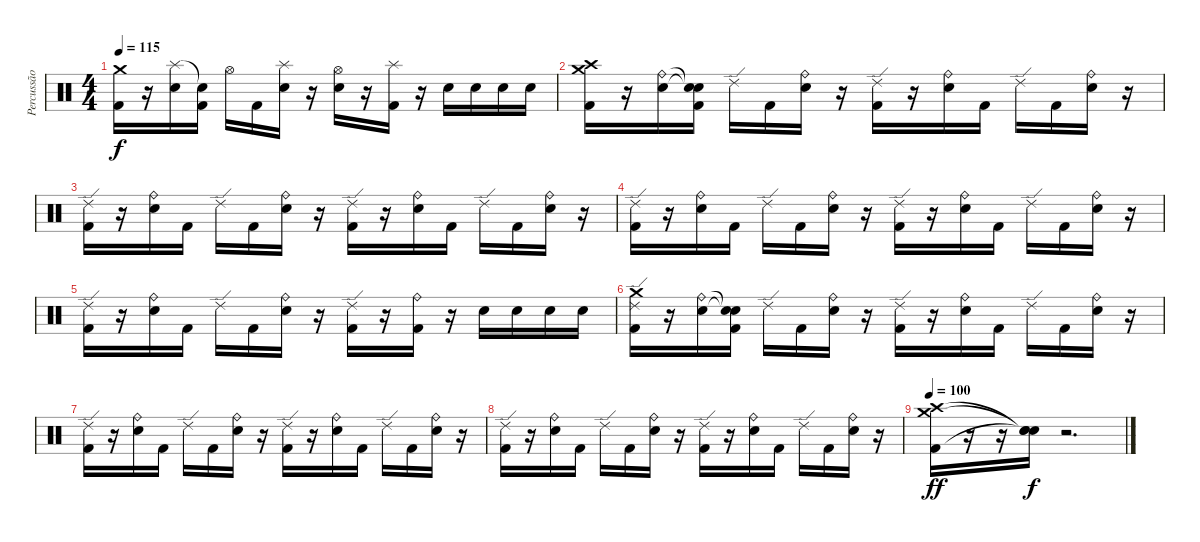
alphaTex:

\track ("Percussão" "Percussão") {instrument percussion}
\staff {score}
\articulation defaults
\ts (4 4)
\tempo 115
\clef neutral
\ks c
("Crash medium (hit)" "Kick (hit) 2").16{dy f} r.16 ("Splash (hit)" "Electric Snare (hit)").16 ("Snare (hit)"{t} "Kick (hit) 2").16 "Hi-Hat (open)".16 "Kick (hit) 2".16 ("Splash (hit)" "Electric Snare (hit)").16 r.16 ("Hi-Hat (open)" "Electric Snare (hit)").16 r.16 ("Splash (hit)" "Kick (hit) 2").16 r.16 "Electric Snare (hit)".16 "Electric Snare (hit)".16 "Electric Snare (hit)".16 "Electric Snare (hit)".16 |
("Crash high (hit)" "Crash medium (hit)" "Kick (hit) 2").16 r.16 ("Ride (bell)" "Electric Snare (hit)").16 ("Snare (hit)"{t} "Snare (hit)"{t} "Kick (hit) 2").16 "Ride (edge) 2".16 "Kick (hit) 2".16 ("Ride (bell)" "Electric Snare (hit)").16 r.16 ("Ride (edge) 2" "Kick (hit) 2").16 r.16 ("Ride (bell)" "Electric Snare (hit)").16 "Kick (hit) 2".16 "Ride (edge) 2".16 "Kick (hit) 2".16 ("Ride (bell)" "Electric Snare (hit)").16 r.16 |
("Ride (edge) 2" "Kick (hit) 2").16 r.16 ("Ride (bell)" "Electric Snare (hit)").16 "Kick (hit) 2".16 "Ride (edge) 2".16 "Kick (hit) 2".16 ("Ride (bell)" "Electric Snare (hit)").16 r.16 ("Ride (edge) 2" "Kick (hit) 2").16 r.16 ("Ride (bell)" "Electric Snare (hit)").16 "Kick (hit) 2".16 "Ride (edge) 2".16 "Kick (hit) 2".16 ("Ride (bell)" "Electric Snare (hit)").16 r.16 |
("Ride (edge) 2" "Kick (hit) 2").16 r.16 ("Ride (bell)" "Electric Snare (hit)").16 "Kick (hit) 2".16 "Ride (edge) 2".16 "Kick (hit) 2".16 ("Ride (bell)" "Electric Snare (hit)").16 r.16 ("Ride (edge) 2" "Kick (hit) 2").16 r.16 ("Ride (bell)" "Electric Snare (hit)").16 "Kick (hit) 2".16 "Ride (edge) 2".16 "Kick (hit) 2".16 ("Ride (bell)" "Electric Snare (hit)").16 r.16 |
("Ride (edge) 2" "Kick (hit) 2").16 r.16 ("Ride (bell)" "Electric Snare (hit)").16 "Kick (hit) 2".16 "Ride (edge) 2".16 "Kick (hit) 2".16 ("Ride (bell)" "Electric Snare (hit)").16 r.16 ("Ride (edge) 2" "Kick (hit) 2").16 r.16 ("Ride (bell)" "Kick (hit) 2").16 r.16 "Electric Snare (hit)".16 "Electric Snare (hit)".16 "Electric Snare (hit)".16 "Electric Snare (hit)".16 |
("Crash medium (hit)" "Ride (edge) 2" "Kick (hit) 2").16 r.16 ("Ride (bell)" "Electric Snare (hit)").16 ("Snare (hit)"{t} "Snare (hit)"{t} "Kick (hit) 2").16 "Ride (edge) 2".16 "Kick (hit) 2".16 ("Ride (bell)" "Electric Snare (hit)").16 r.16 ("Ride (edge) 2" "Kick (hit) 2").16 r.16 ("Ride (bell)" "Electric Snare (hit)").16 "Kick (hit) 2".16 "Ride (edge) 2".16 "Kick (hit) 2".16 ("Ride (bell)" "Electric Snare (hit)").16 r.16 |
("Ride (edge) 2" "Kick (hit) 2").16 r.16 ("Ride (bell)" "Electric Snare (hit)").16 "Kick (hit) 2".16 "Ride (edge) 2".16 "Kick (hit) 2".16 ("Ride (bell)" "Electric Snare (hit)").16 r.16 ("Ride (edge) 2" "Kick (hit) 2").16 r.16 ("Ride (bell)" "Electric Snare (hit)").16 "Kick (hit) 2".16 "Ride (edge) 2".16 "Kick (hit) 2".16 ("Ride (bell)" "Electric Snare (hit)").16 r.16 |
("Ride (edge) 2" "Kick (hit) 2").16 r.16 ("Ride (bell)" "Electric Snare (hit)").16 "Kick (hit) 2".16 "Ride (edge) 2".16 "Kick (hit) 2".16 ("Ride (bell)" "Electric Snare (hit)").16 r.16 ("Ride (edge) 2" "Kick (hit) 2").16 r.16 ("Ride (bell)" "Electric Snare (hit)").16 "Kick (hit) 2".16 "Ride (edge) 2".16 "Kick (hit) 2".16 ("Ride (bell)" "Electric Snare (hit)").16 r.16 |
\tempo 100
("Crash medium (hit)" "Crash high (hit)" "Kick (hit) 2").16{dy ff} r.16 r.16 ("Snare (hit)"{t} "Snare (hit)"{t} "Snare (hit)"{t}).16{dy f} r.2{d}
